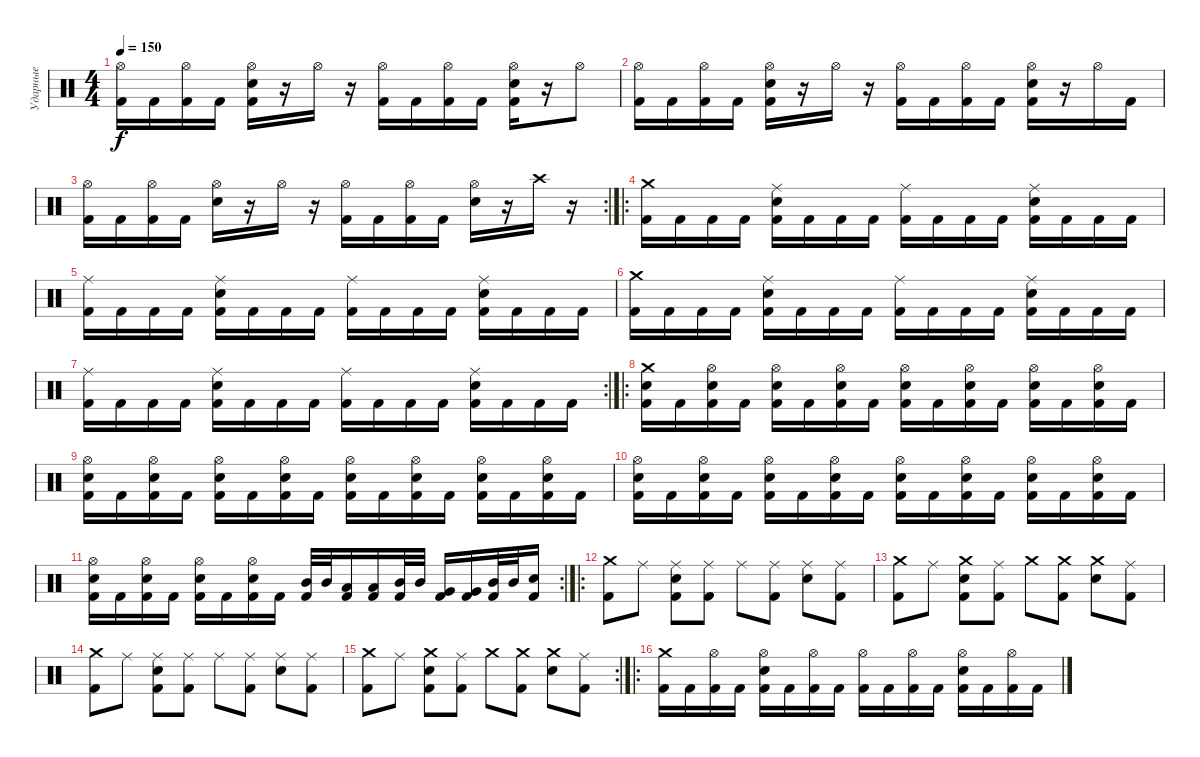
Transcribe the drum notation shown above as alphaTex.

\track ("Ударные" "Ударные") {instrument percussion}
\staff {score}
\articulation defaults
\ts (4 4)
\tempo 150
\clef neutral
\ks c
("Hi-Hat (open)" "Kick (hit) 2").16{dy f} "Kick (hit) 2".16 ("Hi-Hat (open)" "Kick (hit) 2").16 "Kick (hit) 2".16 ("Hi-Hat (open)" "Snare (hit) 2" "Kick (hit) 2").16 r.16 "Hi-Hat (open)".16 r.16 ("Hi-Hat (open)" "Kick (hit) 2").16 "Kick (hit) 2".16 ("Hi-Hat (open)" "Kick (hit) 2").16 "Kick (hit) 2".16 ("Hi-Hat (open)" "Snare (hit) 2" "Kick (hit) 2").16 r.16 "Hi-Hat (open)".8 |
("Hi-Hat (open)" "Kick (hit) 2").16 "Kick (hit) 2".16 ("Hi-Hat (open)" "Kick (hit) 2").16 "Kick (hit) 2".16 ("Hi-Hat (open)" "Snare (hit) 2" "Kick (hit) 2").16 r.16 "Hi-Hat (open)".16 r.16 ("Hi-Hat (open)" "Kick (hit) 2").16 "Kick (hit) 2".16 ("Hi-Hat (open)" "Kick (hit) 2").16 "Kick (hit) 2".16 ("Hi-Hat (open)" "Snare (hit) 2" "Kick (hit) 2").16 r.16 "Hi-Hat (open)".16 "Kick (hit) 2".16 |
\rc 2
("Hi-Hat (open)" "Kick (hit) 2").16 "Kick (hit) 2".16 ("Hi-Hat (open)" "Kick (hit) 2").16 "Kick (hit) 2".16 ("Hi-Hat (open)" "Snare (hit) 2").16 r.16 "Hi-Hat (open)".16 r.16 ("Hi-Hat (open)" "Kick (hit) 2").16 "Kick (hit) 2".16 ("Hi-Hat (open)" "Kick (hit) 2").16 "Kick (hit) 2".16 ("Hi-Hat (open)" "Snare (hit) 2").16 r.16 "Crash high (hit)".16 r.16 |
\ro
("Crash medium (hit)" "Kick (hit) 2").16 "Kick (hit) 2".16 "Kick (hit) 2".16 "Kick (hit) 2".16 ("Ride (middle)" "Snare (hit) 2" "Kick (hit) 2").16 "Kick (hit) 2".16 "Kick (hit) 2".16 "Kick (hit) 2".16 ("Ride (middle)" "Kick (hit) 2").16 "Kick (hit) 2".16 "Kick (hit) 2".16 "Kick (hit) 2".16 ("Ride (middle)" "Snare (hit) 2" "Kick (hit) 2").16 "Kick (hit) 2".16 "Kick (hit) 2".16 "Kick (hit) 2".16 |
("Ride (middle)" "Kick (hit) 2").16 "Kick (hit) 2".16 "Kick (hit) 2".16 "Kick (hit) 2".16 ("Ride (middle)" "Snare (hit) 2" "Kick (hit) 2").16 "Kick (hit) 2".16 "Kick (hit) 2".16 "Kick (hit) 2".16 ("Ride (middle)" "Kick (hit) 2").16 "Kick (hit) 2".16 "Kick (hit) 2".16 "Kick (hit) 2".16 ("Ride (middle)" "Snare (hit) 2" "Kick (hit) 2").16 "Kick (hit) 2".16 "Kick (hit) 2".16 "Kick (hit) 2".16 |
("Crash medium (hit)" "Kick (hit) 2").16 "Kick (hit) 2".16 "Kick (hit) 2".16 "Kick (hit) 2".16 ("Ride (middle)" "Snare (hit) 2" "Kick (hit) 2").16 "Kick (hit) 2".16 "Kick (hit) 2".16 "Kick (hit) 2".16 ("Ride (middle)" "Kick (hit) 2").16 "Kick (hit) 2".16 "Kick (hit) 2".16 "Kick (hit) 2".16 ("Ride (middle)" "Snare (hit) 2" "Kick (hit) 2").16 "Kick (hit) 2".16 "Kick (hit) 2".16 "Kick (hit) 2".16 |
\rc 2
("Ride (middle)" "Kick (hit) 2").16 "Kick (hit) 2".16 "Kick (hit) 2".16 "Kick (hit) 2".16 ("Ride (middle)" "Snare (hit) 2" "Kick (hit) 2").16 "Kick (hit) 2".16 "Kick (hit) 2".16 "Kick (hit) 2".16 ("Ride (middle)" "Kick (hit) 2").16 "Kick (hit) 2".16 "Kick (hit) 2".16 "Kick (hit) 2".16 ("Ride (middle)" "Snare (hit) 2" "Kick (hit) 2").16 "Kick (hit) 2".16 "Kick (hit) 2".16 "Kick (hit) 2".16 |
\ro
("Crash medium (hit)" "Snare (hit) 2" "Kick (hit) 2").16 "Kick (hit) 2".16 ("Hi-Hat (open)" "Snare (hit) 2" "Kick (hit) 2").16 "Kick (hit) 2".16 ("Hi-Hat (open)" "Snare (hit) 2" "Kick (hit) 2").16 "Kick (hit) 2".16 ("Hi-Hat (open)" "Snare (hit) 2" "Kick (hit) 2").16 "Kick (hit) 2".16 ("Hi-Hat (open)" "Snare (hit) 2" "Kick (hit) 2").16 "Kick (hit) 2".16 ("Hi-Hat (open)" "Snare (hit) 2" "Kick (hit) 2").16 "Kick (hit) 2".16 ("Hi-Hat (open)" "Snare (hit) 2" "Kick (hit) 2").16 "Kick (hit) 2".16 ("Hi-Hat (open)" "Snare (hit) 2" "Kick (hit) 2").16 "Kick (hit) 2".16 |
("Hi-Hat (open)" "Snare (hit) 2" "Kick (hit) 2").16 "Kick (hit) 2".16 ("Hi-Hat (open)" "Snare (hit) 2" "Kick (hit) 2").16 "Kick (hit) 2".16 ("Hi-Hat (open)" "Snare (hit) 2" "Kick (hit) 2").16 "Kick (hit) 2".16 ("Hi-Hat (open)" "Snare (hit) 2" "Kick (hit) 2").16 "Kick (hit) 2".16 ("Hi-Hat (open)" "Snare (hit) 2" "Kick (hit) 2").16 "Kick (hit) 2".16 ("Hi-Hat (open)" "Snare (hit) 2" "Kick (hit) 2").16 "Kick (hit) 2".16 ("Hi-Hat (open)" "Snare (hit) 2" "Kick (hit) 2").16 "Kick (hit) 2".16 ("Hi-Hat (open)" "Snare (hit) 2" "Kick (hit) 2").16 "Kick (hit) 2".16 |
("Hi-Hat (open)" "Snare (hit) 2" "Kick (hit) 2").16 "Kick (hit) 2".16 ("Hi-Hat (open)" "Snare (hit) 2" "Kick (hit) 2").16 "Kick (hit) 2".16 ("Hi-Hat (open)" "Snare (hit) 2" "Kick (hit) 2").16 "Kick (hit) 2".16 ("Hi-Hat (open)" "Snare (hit) 2" "Kick (hit) 2").16 "Kick (hit) 2".16 ("Hi-Hat (open)" "Snare (hit) 2" "Kick (hit) 2").16 "Kick (hit) 2".16 ("Hi-Hat (open)" "Snare (hit) 2" "Kick (hit) 2").16 "Kick (hit) 2".16 ("Hi-Hat (open)" "Snare (hit) 2" "Kick (hit) 2").16 "Kick (hit) 2".16 ("Hi-Hat (open)" "Snare (hit) 2" "Kick (hit) 2").16 "Kick (hit) 2".16 |
\rc 2
("Hi-Hat (open)" "Snare (hit) 2" "Kick (hit) 2").16 "Kick (hit) 2".16 ("Hi-Hat (open)" "Snare (hit) 2" "Kick (hit) 2").16 "Kick (hit) 2".16 ("Hi-Hat (open)" "Snare (hit) 2" "Kick (hit) 2").16 "Kick (hit) 2".16 ("Hi-Hat (open)" "Snare (hit) 2" "Kick (hit) 2").16 "Kick (hit) 2".16 ("Mid Tom (hit)" "Kick (hit) 2").32 "Mid Tom (hit)".32 ("Low Tom (hit)" "Kick (hit) 2").16 ("Low Tom (hit)" "Kick (hit) 2").16 ("Mid Tom (hit)" "Kick (hit) 2").32 "Mid Tom (hit)".32 ("Very Low Tom (hit)" "Kick (hit) 2").16 ("Very Low Tom (hit)" "Kick (hit) 2").16 ("Mid Tom (hit)" "Kick (hit) 2").32 "Mid Tom (hit)".32 ("Snare (hit) 2" "Kick (hit) 2").16 |
\ro
("Crash medium (hit)" "Kick (hit) 2").8 "Ride (middle)".8 ("Ride (middle)" "Snare (hit) 2" "Kick (hit) 2").8 ("Ride (middle)" "Kick (hit) 2").8 "Ride (middle)".8 ("Ride (middle)" "Kick (hit) 2").8 ("Ride (middle)" "Snare (hit) 2").8 ("Ride (middle)" "Kick (hit) 2").8 |
("Crash medium (hit)" "Kick (hit) 2").8 "Ride (middle)".8 ("Crash medium (hit)" "Snare (hit) 2" "Kick (hit) 2").8 ("Ride (middle)" "Kick (hit) 2").8 "Crash medium (hit)".8 ("Crash medium (hit)" "Kick (hit) 2").8 ("Crash medium (hit)" "Snare (hit) 2").8 ("Ride (middle)" "Kick (hit) 2").8 |
("Crash medium (hit)" "Kick (hit) 2").8 "Ride (middle)".8 ("Ride (middle)" "Snare (hit) 2" "Kick (hit) 2").8 ("Ride (middle)" "Kick (hit) 2").8 "Ride (middle)".8 ("Ride (middle)" "Kick (hit) 2").8 ("Ride (middle)" "Snare (hit) 2").8 ("Ride (middle)" "Kick (hit) 2").8 |
\rc 2
("Crash medium (hit)" "Kick (hit) 2").8 "Ride (middle)".8 ("Crash medium (hit)" "Snare (hit) 2" "Kick (hit) 2").8 ("Ride (middle)" "Kick (hit) 2").8 "Crash medium (hit)".8 ("Crash medium (hit)" "Kick (hit) 2").8 ("Crash medium (hit)" "Snare (hit) 2").8 ("Ride (middle)" "Kick (hit) 2").8 |
\ro
("Crash medium (hit)" "Kick (hit) 2").16 "Kick (hit) 2".16 ("Hi-Hat (open)" "Kick (hit) 2").16 "Kick (hit) 2".16 ("Hi-Hat (open)" "Snare (hit) 2" "Kick (hit) 2").16 "Kick (hit) 2".16 ("Hi-Hat (open)" "Kick (hit) 2").16 "Kick (hit) 2".16 ("Hi-Hat (open)" "Kick (hit) 2").16 "Kick (hit) 2".16 ("Hi-Hat (open)" "Kick (hit) 2").16 "Kick (hit) 2".16 ("Hi-Hat (open)" "Snare (hit) 2" "Kick (hit) 2").16 "Kick (hit) 2".16 ("Hi-Hat (open)" "Kick (hit) 2").16 "Kick (hit) 2".16
